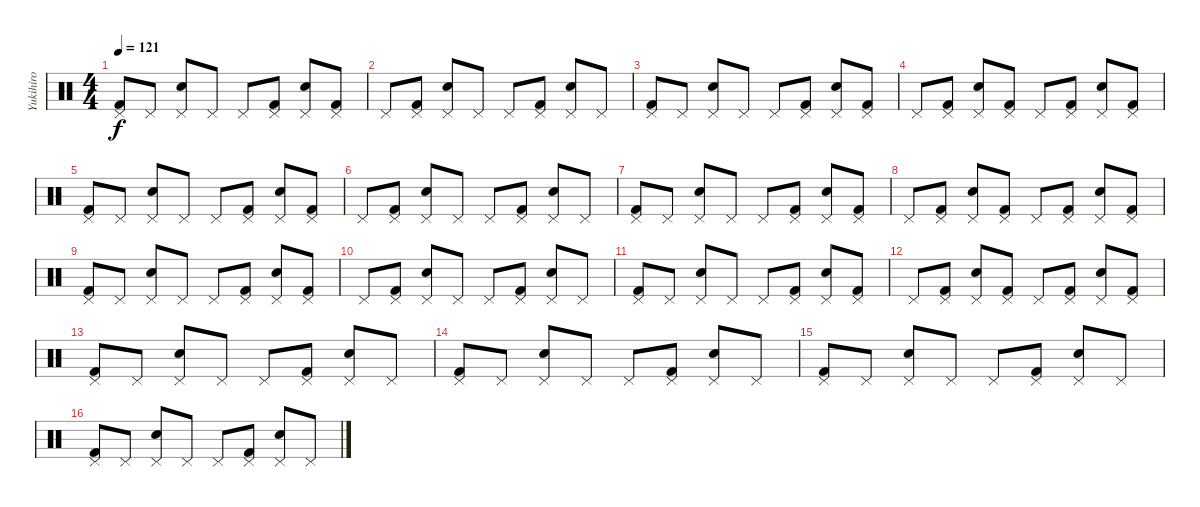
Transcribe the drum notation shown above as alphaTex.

\track ("Yukihiro" "Yukihiro") {instrument percussion}
\staff {score}
\articulation defaults
\ts (4 4)
\tempo 121
\clef neutral
\ks c
("Pedal Hi-Hat (hit)" "Kick (hit) 2").8{dy f} "Pedal Hi-Hat (hit)".8 ("Pedal Hi-Hat (hit)" "Electric Snare (hit)").8 "Pedal Hi-Hat (hit)".8 "Pedal Hi-Hat (hit)".8 ("Pedal Hi-Hat (hit)" "Kick (hit) 2").8 ("Pedal Hi-Hat (hit)" "Electric Snare (hit)").8 ("Pedal Hi-Hat (hit)" "Kick (hit) 2").8 |
"Pedal Hi-Hat (hit)".8 ("Pedal Hi-Hat (hit)" "Kick (hit) 2").8 ("Pedal Hi-Hat (hit)" "Electric Snare (hit)").8 "Pedal Hi-Hat (hit)".8 "Pedal Hi-Hat (hit)".8 ("Pedal Hi-Hat (hit)" "Kick (hit) 2").8 ("Pedal Hi-Hat (hit)" "Electric Snare (hit)").8 "Pedal Hi-Hat (hit)".8 |
("Pedal Hi-Hat (hit)" "Kick (hit) 2").8 "Pedal Hi-Hat (hit)".8 ("Pedal Hi-Hat (hit)" "Electric Snare (hit)").8 "Pedal Hi-Hat (hit)".8 "Pedal Hi-Hat (hit)".8 ("Pedal Hi-Hat (hit)" "Kick (hit) 2").8 ("Pedal Hi-Hat (hit)" "Electric Snare (hit)").8 ("Pedal Hi-Hat (hit)" "Kick (hit) 2").8 |
"Pedal Hi-Hat (hit)".8 ("Pedal Hi-Hat (hit)" "Kick (hit) 2").8 ("Pedal Hi-Hat (hit)" "Electric Snare (hit)").8 ("Pedal Hi-Hat (hit)" "Kick (hit) 2").8 "Pedal Hi-Hat (hit)".8 ("Pedal Hi-Hat (hit)" "Kick (hit) 2").8 ("Pedal Hi-Hat (hit)" "Electric Snare (hit)").8 ("Pedal Hi-Hat (hit)" "Kick (hit) 2").8 |
("Pedal Hi-Hat (hit)" "Kick (hit) 2").8 "Pedal Hi-Hat (hit)".8 ("Pedal Hi-Hat (hit)" "Electric Snare (hit)").8 "Pedal Hi-Hat (hit)".8 "Pedal Hi-Hat (hit)".8 ("Pedal Hi-Hat (hit)" "Kick (hit) 2").8 ("Pedal Hi-Hat (hit)" "Electric Snare (hit)").8 ("Pedal Hi-Hat (hit)" "Kick (hit) 2").8 |
"Pedal Hi-Hat (hit)".8 ("Pedal Hi-Hat (hit)" "Kick (hit) 2").8 ("Pedal Hi-Hat (hit)" "Electric Snare (hit)").8 "Pedal Hi-Hat (hit)".8 "Pedal Hi-Hat (hit)".8 ("Pedal Hi-Hat (hit)" "Kick (hit) 2").8 ("Pedal Hi-Hat (hit)" "Electric Snare (hit)").8 "Pedal Hi-Hat (hit)".8 |
("Pedal Hi-Hat (hit)" "Kick (hit) 2").8 "Pedal Hi-Hat (hit)".8 ("Pedal Hi-Hat (hit)" "Electric Snare (hit)").8 "Pedal Hi-Hat (hit)".8 "Pedal Hi-Hat (hit)".8 ("Pedal Hi-Hat (hit)" "Kick (hit) 2").8 ("Pedal Hi-Hat (hit)" "Electric Snare (hit)").8 ("Pedal Hi-Hat (hit)" "Kick (hit) 2").8 |
"Pedal Hi-Hat (hit)".8 ("Pedal Hi-Hat (hit)" "Kick (hit) 2").8 ("Pedal Hi-Hat (hit)" "Electric Snare (hit)").8 ("Pedal Hi-Hat (hit)" "Kick (hit) 2").8 "Pedal Hi-Hat (hit)".8 ("Pedal Hi-Hat (hit)" "Kick (hit) 2").8 ("Pedal Hi-Hat (hit)" "Electric Snare (hit)").8 ("Pedal Hi-Hat (hit)" "Kick (hit) 2").8 |
("Pedal Hi-Hat (hit)" "Kick (hit) 2").8 "Pedal Hi-Hat (hit)".8 ("Pedal Hi-Hat (hit)" "Electric Snare (hit)").8 "Pedal Hi-Hat (hit)".8 "Pedal Hi-Hat (hit)".8 ("Pedal Hi-Hat (hit)" "Kick (hit) 2").8 ("Pedal Hi-Hat (hit)" "Electric Snare (hit)").8 ("Pedal Hi-Hat (hit)" "Kick (hit) 2").8 |
"Pedal Hi-Hat (hit)".8 ("Pedal Hi-Hat (hit)" "Kick (hit) 2").8 ("Pedal Hi-Hat (hit)" "Electric Snare (hit)").8 "Pedal Hi-Hat (hit)".8 "Pedal Hi-Hat (hit)".8 ("Pedal Hi-Hat (hit)" "Kick (hit) 2").8 ("Pedal Hi-Hat (hit)" "Electric Snare (hit)").8 "Pedal Hi-Hat (hit)".8 |
("Pedal Hi-Hat (hit)" "Kick (hit) 2").8 "Pedal Hi-Hat (hit)".8 ("Pedal Hi-Hat (hit)" "Electric Snare (hit)").8 "Pedal Hi-Hat (hit)".8 "Pedal Hi-Hat (hit)".8 ("Pedal Hi-Hat (hit)" "Kick (hit) 2").8 ("Pedal Hi-Hat (hit)" "Electric Snare (hit)").8 ("Pedal Hi-Hat (hit)" "Kick (hit) 2").8 |
"Pedal Hi-Hat (hit)".8 ("Pedal Hi-Hat (hit)" "Kick (hit) 2").8 ("Pedal Hi-Hat (hit)" "Electric Snare (hit)").8 ("Pedal Hi-Hat (hit)" "Kick (hit) 2").8 "Pedal Hi-Hat (hit)".8 ("Pedal Hi-Hat (hit)" "Kick (hit) 2").8 ("Pedal Hi-Hat (hit)" "Electric Snare (hit)").8 ("Pedal Hi-Hat (hit)" "Kick (hit) 2").8 |
("Pedal Hi-Hat (hit)" "Kick (hit) 2").8 "Pedal Hi-Hat (hit)".8 ("Pedal Hi-Hat (hit)" "Electric Snare (hit)").8 "Pedal Hi-Hat (hit)".8 "Pedal Hi-Hat (hit)".8 ("Pedal Hi-Hat (hit)" "Kick (hit) 2").8 ("Pedal Hi-Hat (hit)" "Electric Snare (hit)").8 "Pedal Hi-Hat (hit)".8 |
("Pedal Hi-Hat (hit)" "Kick (hit) 2").8 "Pedal Hi-Hat (hit)".8 ("Pedal Hi-Hat (hit)" "Electric Snare (hit)").8 "Pedal Hi-Hat (hit)".8 "Pedal Hi-Hat (hit)".8 ("Pedal Hi-Hat (hit)" "Kick (hit) 2").8 ("Pedal Hi-Hat (hit)" "Electric Snare (hit)").8 "Pedal Hi-Hat (hit)".8 |
("Pedal Hi-Hat (hit)" "Kick (hit) 2").8 "Pedal Hi-Hat (hit)".8 ("Pedal Hi-Hat (hit)" "Electric Snare (hit)").8 "Pedal Hi-Hat (hit)".8 "Pedal Hi-Hat (hit)".8 ("Pedal Hi-Hat (hit)" "Kick (hit) 2").8 ("Pedal Hi-Hat (hit)" "Electric Snare (hit)").8 "Pedal Hi-Hat (hit)".8 |
("Pedal Hi-Hat (hit)" "Kick (hit) 2").8 "Pedal Hi-Hat (hit)".8 ("Pedal Hi-Hat (hit)" "Electric Snare (hit)").8 "Pedal Hi-Hat (hit)".8 "Pedal Hi-Hat (hit)".8 ("Pedal Hi-Hat (hit)" "Kick (hit) 2").8 ("Pedal Hi-Hat (hit)" "Electric Snare (hit)").8 "Pedal Hi-Hat (hit)".8
